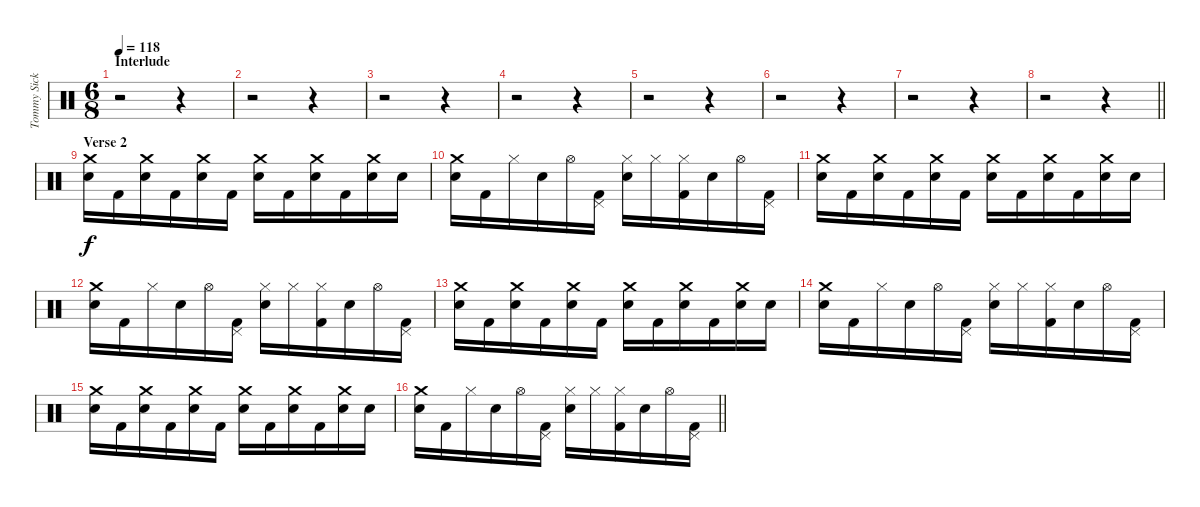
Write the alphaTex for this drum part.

\track ("Tommy Sickles" "Tommy Sick") {instrument percussion}
\staff {score}
\articulation defaults
\ts (6 8)
\section ("" "Interlude")
\tempo 118
\clef neutral
\ks c
r.2{dy f} r.4 |
r.2 r.4 |
r.2 r.4 |
r.2 r.4 |
r.2 r.4 |
r.2 r.4 |
r.2 r.4 |
\barLineRight lightlight
r.2 r.4 |
\section ("" "Verse 2")
("Crash medium (hit)" "Electric Snare (hit)").16 "Kick (hit) 2".16 ("Crash medium (hit)" "Electric Snare (hit)").16 "Kick (hit) 2".16 ("Crash medium (hit)" "Electric Snare (hit)").16 "Kick (hit) 2".16 ("Crash medium (hit)" "Electric Snare (hit)").16 "Kick (hit) 2".16 ("Crash medium (hit)" "Electric Snare (hit)").16 "Kick (hit) 2".16 ("Crash medium (hit)" "Electric Snare (hit)").16 "Electric Snare (hit)".16 |
("Crash medium (hit)" "Electric Snare (hit)").16 "Kick (hit) 2".16 "Hi-Hat (closed)".16 "Electric Snare (hit)".16 "Hi-Hat (open)".16 ("Pedal Hi-Hat (hit)" "Kick (hit) 2").16 ("Hi-Hat (closed)" "Electric Snare (hit)").16 "Hi-Hat (closed)".16 ("Hi-Hat (closed)" "Kick (hit) 2").16 "Electric Snare (hit)".16 "Hi-Hat (open)".16 ("Pedal Hi-Hat (hit)" "Kick (hit) 2").16 |
("Crash medium (hit)" "Electric Snare (hit)").16 "Kick (hit) 2".16 ("Crash medium (hit)" "Electric Snare (hit)").16 "Kick (hit) 2".16 ("Crash medium (hit)" "Electric Snare (hit)").16 "Kick (hit) 2".16 ("Crash medium (hit)" "Electric Snare (hit)").16 "Kick (hit) 2".16 ("Crash medium (hit)" "Electric Snare (hit)").16 "Kick (hit) 2".16 ("Crash medium (hit)" "Electric Snare (hit)").16 "Electric Snare (hit)".16 |
("Crash medium (hit)" "Electric Snare (hit)").16 "Kick (hit) 2".16 "Hi-Hat (closed)".16 "Electric Snare (hit)".16 "Hi-Hat (open)".16 ("Pedal Hi-Hat (hit)" "Kick (hit) 2").16 ("Hi-Hat (closed)" "Electric Snare (hit)").16 "Hi-Hat (closed)".16 ("Hi-Hat (closed)" "Kick (hit) 2").16 "Electric Snare (hit)".16 "Hi-Hat (open)".16 ("Pedal Hi-Hat (hit)" "Kick (hit) 2").16 |
("Crash medium (hit)" "Electric Snare (hit)").16 "Kick (hit) 2".16 ("Crash medium (hit)" "Electric Snare (hit)").16 "Kick (hit) 2".16 ("Crash medium (hit)" "Electric Snare (hit)").16 "Kick (hit) 2".16 ("Crash medium (hit)" "Electric Snare (hit)").16 "Kick (hit) 2".16 ("Crash medium (hit)" "Electric Snare (hit)").16 "Kick (hit) 2".16 ("Crash medium (hit)" "Electric Snare (hit)").16 "Electric Snare (hit)".16 |
("Crash medium (hit)" "Electric Snare (hit)").16 "Kick (hit) 2".16 "Hi-Hat (closed)".16 "Electric Snare (hit)".16 "Hi-Hat (open)".16 ("Pedal Hi-Hat (hit)" "Kick (hit) 2").16 ("Hi-Hat (closed)" "Electric Snare (hit)").16 "Hi-Hat (closed)".16 ("Hi-Hat (closed)" "Kick (hit) 2").16 "Electric Snare (hit)".16 "Hi-Hat (open)".16 ("Pedal Hi-Hat (hit)" "Kick (hit) 2").16 |
("Crash medium (hit)" "Electric Snare (hit)").16 "Kick (hit) 2".16 ("Crash medium (hit)" "Electric Snare (hit)").16 "Kick (hit) 2".16 ("Crash medium (hit)" "Electric Snare (hit)").16 "Kick (hit) 2".16 ("Crash medium (hit)" "Electric Snare (hit)").16 "Kick (hit) 2".16 ("Crash medium (hit)" "Electric Snare (hit)").16 "Kick (hit) 2".16 ("Crash medium (hit)" "Electric Snare (hit)").16 "Electric Snare (hit)".16 |
\barLineRight lightlight
("Crash medium (hit)" "Electric Snare (hit)").16 "Kick (hit) 2".16 "Hi-Hat (closed)".16 "Electric Snare (hit)".16 "Hi-Hat (open)".16 ("Pedal Hi-Hat (hit)" "Kick (hit) 2").16 ("Hi-Hat (closed)" "Electric Snare (hit)").16 "Hi-Hat (closed)".16 ("Hi-Hat (closed)" "Kick (hit) 2").16 "Electric Snare (hit)".16 "Hi-Hat (open)".16 ("Pedal Hi-Hat (hit)" "Kick (hit) 2").16
